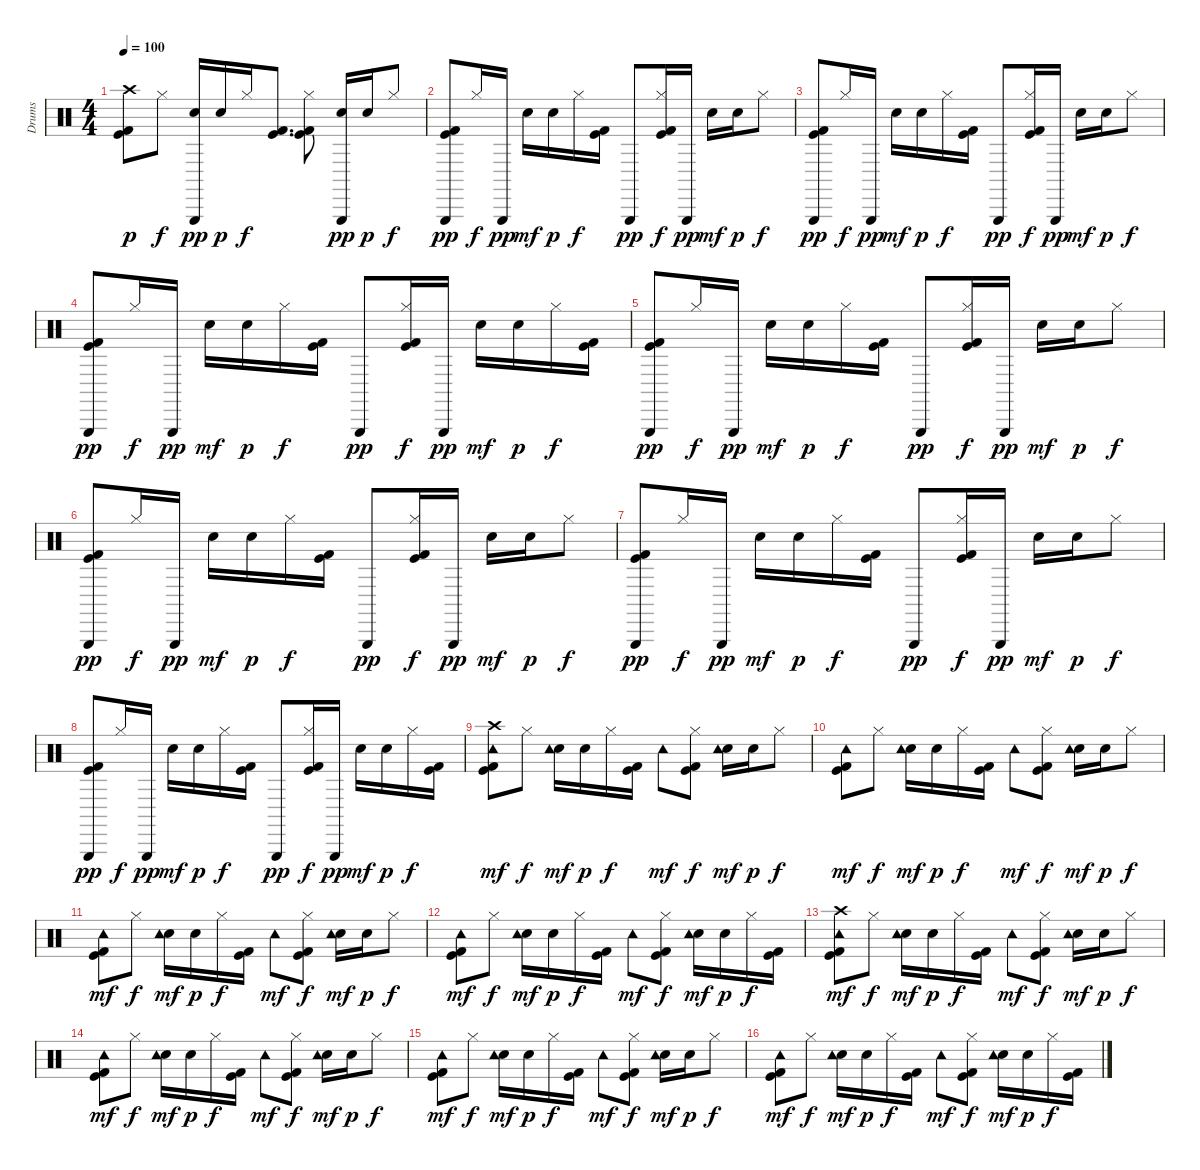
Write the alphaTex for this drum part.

\track ("Drums" "Drums") {instrument percussion}
\staff {score}
\articulation defaults
\ts (4 4)
\tempo 100
\clef neutral
\ks c
("Kick (hit)" "Kick (hit) 2" "Crash high (hit)").8{dy p} "Hi-Hat (closed)".8{dy f} ("Hand Clap (hit)" "Triangle (hit)").16{dy pp} "Hand Clap (hit)".16{dy p} "Hi-Hat (closed)".16{dy f} ("Kick (hit)" "Kick (hit) 2").8{d} ("Kick (hit)" "Kick (hit) 2" "Hi-Hat (closed)").8 ("Hand Clap (hit)" "Triangle (hit)").16{dy pp} "Hand Clap (hit)".16{dy p} "Hi-Hat (closed)".8{dy f} |
("Kick (hit)" "Kick (hit) 2" "Triangle (hit)").8{dy pp} "Hi-Hat (closed)".16{dy f} "Triangle (hit)".16{dy pp} "Hand Clap (hit)".16{dy mf} "Hand Clap (hit)".16{dy p} "Hi-Hat (closed)".16{dy f} ("Kick (hit)" "Kick (hit) 2").16 "Triangle (hit)".8{dy pp} ("Kick (hit)" "Kick (hit) 2" "Hi-Hat (closed)").16{dy f} "Triangle (hit)".16{dy pp} "Hand Clap (hit)".16{dy mf} "Hand Clap (hit)".16{dy p} "Hi-Hat (closed)".8{dy f} |
("Kick (hit)" "Kick (hit) 2" "Triangle (hit)").8{dy pp} "Hi-Hat (closed)".16{dy f} "Triangle (hit)".16{dy pp} "Hand Clap (hit)".16{dy mf} "Hand Clap (hit)".16{dy p} "Hi-Hat (closed)".16{dy f} ("Kick (hit)" "Kick (hit) 2").16 "Triangle (hit)".8{dy pp} ("Kick (hit)" "Kick (hit) 2" "Hi-Hat (closed)").16{dy f} "Triangle (hit)".16{dy pp} "Hand Clap (hit)".16{dy mf} "Hand Clap (hit)".16{dy p} "Hi-Hat (closed)".8{dy f} |
("Kick (hit)" "Kick (hit) 2" "Triangle (hit)").8{dy pp} "Hi-Hat (closed)".16{dy f} "Triangle (hit)".16{dy pp} "Hand Clap (hit)".16{dy mf} "Hand Clap (hit)".16{dy p} "Hi-Hat (closed)".16{dy f} ("Kick (hit)" "Kick (hit) 2").16 "Triangle (hit)".8{dy pp} ("Kick (hit)" "Kick (hit) 2" "Hi-Hat (closed)").16{dy f} "Triangle (hit)".16{dy pp} "Hand Clap (hit)".16{dy mf} "Hand Clap (hit)".16{dy p} "Hi-Hat (closed)".16{dy f} ("Kick (hit) 2" "Kick (hit)").16 |
("Kick (hit)" "Kick (hit) 2" "Triangle (hit)").8{dy pp} "Hi-Hat (closed)".16{dy f} "Triangle (hit)".16{dy pp} "Hand Clap (hit)".16{dy mf} "Hand Clap (hit)".16{dy p} "Hi-Hat (closed)".16{dy f} ("Kick (hit)" "Kick (hit) 2").16 "Triangle (hit)".8{dy pp} ("Kick (hit)" "Kick (hit) 2" "Hi-Hat (closed)").16{dy f} "Triangle (hit)".16{dy pp} "Hand Clap (hit)".16{dy mf} "Hand Clap (hit)".16{dy p} "Hi-Hat (closed)".8{dy f} |
("Kick (hit)" "Kick (hit) 2" "Triangle (hit)").8{dy pp} "Hi-Hat (closed)".16{dy f} "Triangle (hit)".16{dy pp} "Hand Clap (hit)".16{dy mf} "Hand Clap (hit)".16{dy p} "Hi-Hat (closed)".16{dy f} ("Kick (hit)" "Kick (hit) 2").16 "Triangle (hit)".8{dy pp} ("Kick (hit)" "Kick (hit) 2" "Hi-Hat (closed)").16{dy f} "Triangle (hit)".16{dy pp} "Hand Clap (hit)".16{dy mf} "Hand Clap (hit)".16{dy p} "Hi-Hat (closed)".8{dy f} |
("Kick (hit)" "Kick (hit) 2" "Triangle (hit)").8{dy pp} "Hi-Hat (closed)".16{dy f} "Triangle (hit)".16{dy pp} "Hand Clap (hit)".16{dy mf} "Hand Clap (hit)".16{dy p} "Hi-Hat (closed)".16{dy f} ("Kick (hit)" "Kick (hit) 2").16 "Triangle (hit)".8{dy pp} ("Kick (hit)" "Kick (hit) 2" "Hi-Hat (closed)").16{dy f} "Triangle (hit)".16{dy pp} "Hand Clap (hit)".16{dy mf} "Hand Clap (hit)".16{dy p} "Hi-Hat (closed)".8{dy f} |
("Kick (hit)" "Kick (hit) 2" "Triangle (hit)").8{dy pp} "Hi-Hat (closed)".16{dy f} "Triangle (hit)".16{dy pp} "Hand Clap (hit)".16{dy mf} "Hand Clap (hit)".16{dy p} "Hi-Hat (closed)".16{dy f} ("Kick (hit)" "Kick (hit) 2").16 "Triangle (hit)".8{dy pp} ("Kick (hit)" "Kick (hit) 2" "Hi-Hat (closed)").16{dy f} "Triangle (hit)".16{dy pp} "Hand Clap (hit)".16{dy mf} "Hand Clap (hit)".16{dy p} "Hi-Hat (closed)".16{dy f} ("Kick (hit) 2" "Kick (hit)").16 |
("Kick (hit)" "Kick (hit) 2" "Tambourine (hit)" "Crash high (hit)").8{dy mf} "Hi-Hat (closed)".8{dy f} ("Hand Clap (hit)" "Tambourine (hit)").16{dy mf} "Hand Clap (hit)".16{dy p} "Hi-Hat (closed)".16{dy f} ("Kick (hit)" "Kick (hit) 2").16 "Tambourine (hit)".8{dy mf} ("Kick (hit)" "Kick (hit) 2" "Hi-Hat (closed)").8{dy f} ("Hand Clap (hit)" "Tambourine (hit)").16{dy mf} "Hand Clap (hit)".16{dy p} "Hi-Hat (closed)".8{dy f} |
("Kick (hit)" "Kick (hit) 2" "Tambourine (hit)").8{dy mf} "Hi-Hat (closed)".8{dy f} ("Hand Clap (hit)" "Tambourine (hit)").16{dy mf} "Hand Clap (hit)".16{dy p} "Hi-Hat (closed)".16{dy f} ("Kick (hit)" "Kick (hit) 2").16 "Tambourine (hit)".8{dy mf} ("Kick (hit)" "Kick (hit) 2" "Hi-Hat (closed)").8{dy f} ("Hand Clap (hit)" "Tambourine (hit)").16{dy mf} "Hand Clap (hit)".16{dy p} "Hi-Hat (closed)".8{dy f} |
("Kick (hit)" "Kick (hit) 2" "Tambourine (hit)").8{dy mf} "Hi-Hat (closed)".8{dy f} ("Hand Clap (hit)" "Tambourine (hit)").16{dy mf} "Hand Clap (hit)".16{dy p} "Hi-Hat (closed)".16{dy f} ("Kick (hit)" "Kick (hit) 2").16 "Tambourine (hit)".8{dy mf} ("Kick (hit)" "Kick (hit) 2" "Hi-Hat (closed)").8{dy f} ("Hand Clap (hit)" "Tambourine (hit)").16{dy mf} "Hand Clap (hit)".16{dy p} "Hi-Hat (closed)".8{dy f} |
("Kick (hit)" "Kick (hit) 2" "Tambourine (hit)").8{dy mf} "Hi-Hat (closed)".8{dy f} ("Hand Clap (hit)" "Tambourine (hit)").16{dy mf} "Hand Clap (hit)".16{dy p} "Hi-Hat (closed)".16{dy f} ("Kick (hit)" "Kick (hit) 2").16 "Tambourine (hit)".8{dy mf} ("Kick (hit)" "Kick (hit) 2" "Hi-Hat (closed)").8{dy f} ("Hand Clap (hit)" "Tambourine (hit)").16{dy mf} "Hand Clap (hit)".16{dy p} "Hi-Hat (closed)".16{dy f} ("Kick (hit)" "Kick (hit) 2").16 |
("Kick (hit)" "Kick (hit) 2" "Tambourine (hit)" "Crash high (hit)").8{dy mf} "Hi-Hat (closed)".8{dy f} ("Hand Clap (hit)" "Tambourine (hit)").16{dy mf} "Hand Clap (hit)".16{dy p} "Hi-Hat (closed)".16{dy f} ("Kick (hit)" "Kick (hit) 2").16 "Tambourine (hit)".8{dy mf} ("Kick (hit)" "Kick (hit) 2" "Hi-Hat (closed)").8{dy f} ("Hand Clap (hit)" "Tambourine (hit)").16{dy mf} "Hand Clap (hit)".16{dy p} "Hi-Hat (closed)".8{dy f} |
("Kick (hit)" "Kick (hit) 2" "Tambourine (hit)").8{dy mf} "Hi-Hat (closed)".8{dy f} ("Hand Clap (hit)" "Tambourine (hit)").16{dy mf} "Hand Clap (hit)".16{dy p} "Hi-Hat (closed)".16{dy f} ("Kick (hit)" "Kick (hit) 2").16 "Tambourine (hit)".8{dy mf} ("Kick (hit)" "Kick (hit) 2" "Hi-Hat (closed)").8{dy f} ("Hand Clap (hit)" "Tambourine (hit)").16{dy mf} "Hand Clap (hit)".16{dy p} "Hi-Hat (closed)".8{dy f} |
("Kick (hit)" "Kick (hit) 2" "Tambourine (hit)").8{dy mf} "Hi-Hat (closed)".8{dy f} ("Hand Clap (hit)" "Tambourine (hit)").16{dy mf} "Hand Clap (hit)".16{dy p} "Hi-Hat (closed)".16{dy f} ("Kick (hit)" "Kick (hit) 2").16 "Tambourine (hit)".8{dy mf} ("Kick (hit)" "Kick (hit) 2" "Hi-Hat (closed)").8{dy f} ("Hand Clap (hit)" "Tambourine (hit)").16{dy mf} "Hand Clap (hit)".16{dy p} "Hi-Hat (closed)".8{dy f} |
("Kick (hit)" "Kick (hit) 2" "Tambourine (hit)").8{dy mf} "Hi-Hat (closed)".8{dy f} ("Hand Clap (hit)" "Tambourine (hit)").16{dy mf} "Hand Clap (hit)".16{dy p} "Hi-Hat (closed)".16{dy f} ("Kick (hit)" "Kick (hit) 2").16 "Tambourine (hit)".8{dy mf} ("Kick (hit)" "Kick (hit) 2" "Hi-Hat (closed)").8{dy f} ("Hand Clap (hit)" "Tambourine (hit)").16{dy mf} "Hand Clap (hit)".16{dy p} "Hi-Hat (closed)".16{dy f} ("Kick (hit) 2" "Kick (hit)").16
